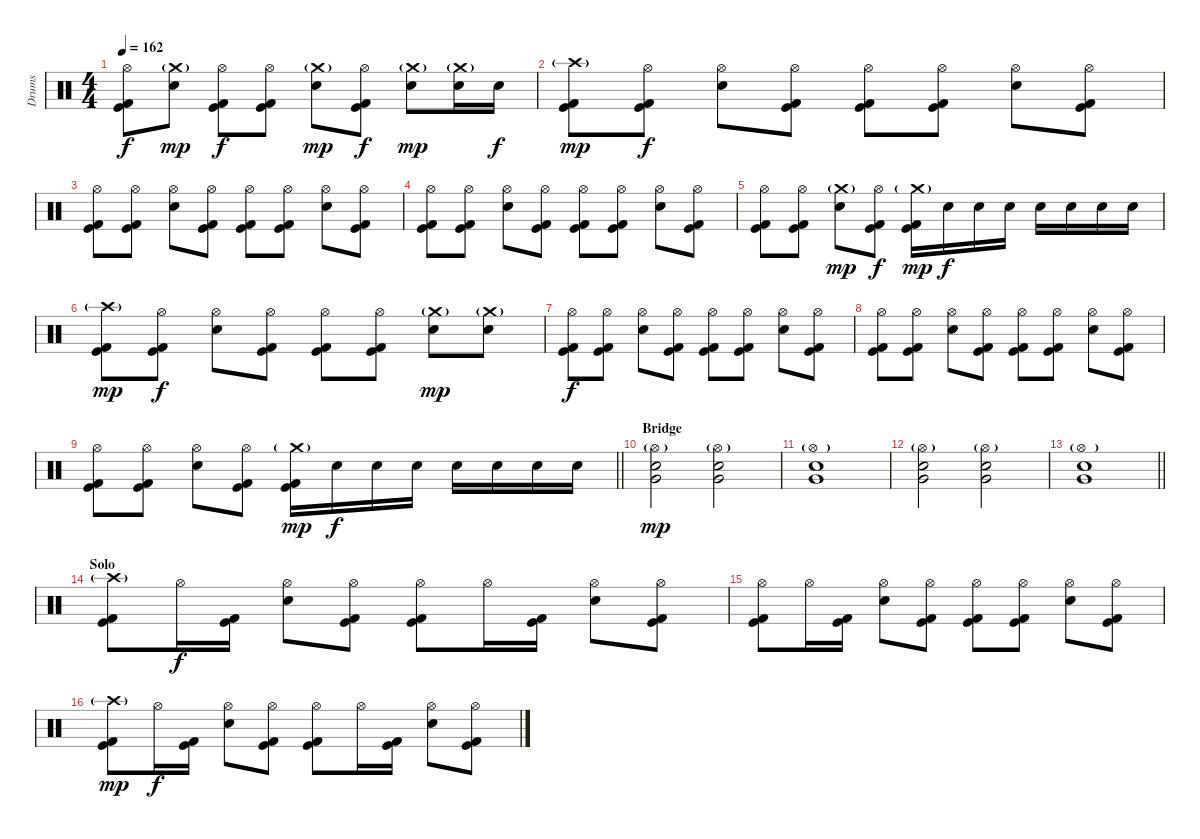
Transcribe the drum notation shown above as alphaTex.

\track ("Drums" "Drums") {instrument percussion}
\staff {score}
\articulation defaults
\ts (4 4)
\tempo 162
\clef neutral
\ks c
("Hi-Hat (open)" "Kick (hit)" "Kick (hit) 2").8{dy f} ("Crash medium (hit)"{g} "Electric Snare (hit)").8{dy mp} ("Hi-Hat (open)" "Kick (hit)" "Kick (hit) 2").8{dy f} ("Hi-Hat (open)" "Kick (hit)" "Kick (hit) 2").8 ("Crash medium (hit)"{g} "Electric Snare (hit)").8{dy mp} ("Hi-Hat (open)" "Kick (hit)" "Kick (hit) 2").8{dy f} ("Crash medium (hit)"{g} "Electric Snare (hit)").8{dy mp} ("Crash medium (hit)"{g} "Electric Snare (hit)").16 "Electric Snare (hit)".16{dy f} |
("Crash high (hit)"{g} "Kick (hit)" "Kick (hit) 2").8{dy mp} ("Hi-Hat (open)" "Kick (hit)" "Kick (hit) 2").8{dy f} ("Hi-Hat (open)" "Electric Snare (hit)").8 ("Hi-Hat (open)" "Kick (hit)" "Kick (hit) 2").8 ("Hi-Hat (open)" "Kick (hit)" "Kick (hit) 2").8 ("Hi-Hat (open)" "Kick (hit)" "Kick (hit) 2").8 ("Hi-Hat (open)" "Electric Snare (hit)").8 ("Hi-Hat (open)" "Kick (hit)" "Kick (hit) 2").8 |
("Hi-Hat (open)" "Kick (hit)" "Kick (hit) 2").8 ("Hi-Hat (open)" "Kick (hit)" "Kick (hit) 2").8 ("Hi-Hat (open)" "Electric Snare (hit)").8 ("Hi-Hat (open)" "Kick (hit)" "Kick (hit) 2").8 ("Hi-Hat (open)" "Kick (hit)" "Kick (hit) 2").8 ("Hi-Hat (open)" "Kick (hit)" "Kick (hit) 2").8 ("Hi-Hat (open)" "Electric Snare (hit)").8 ("Hi-Hat (open)" "Kick (hit)" "Kick (hit) 2").8 |
("Hi-Hat (open)" "Kick (hit)" "Kick (hit) 2").8 ("Hi-Hat (open)" "Kick (hit)" "Kick (hit) 2").8 ("Hi-Hat (open)" "Electric Snare (hit)").8 ("Hi-Hat (open)" "Kick (hit)" "Kick (hit) 2").8 ("Hi-Hat (open)" "Kick (hit)" "Kick (hit) 2").8 ("Hi-Hat (open)" "Kick (hit)" "Kick (hit) 2").8 ("Hi-Hat (open)" "Electric Snare (hit)").8 ("Hi-Hat (open)" "Kick (hit)" "Kick (hit) 2").8 |
("Hi-Hat (open)" "Kick (hit)" "Kick (hit) 2").8 ("Hi-Hat (open)" "Kick (hit)" "Kick (hit) 2").8 ("Crash medium (hit)"{g} "Electric Snare (hit)").8{dy mp} ("Hi-Hat (open)" "Kick (hit)" "Kick (hit) 2").8{dy f} ("Crash medium (hit)"{g} "Kick (hit)" "Kick (hit) 2").16{dy mp} "Electric Snare (hit)".16{dy f} "Electric Snare (hit)".16 "Electric Snare (hit)".16 "Electric Snare (hit)".16 "Electric Snare (hit)".16 "Electric Snare (hit)".16 "Electric Snare (hit)".16 |
("Crash high (hit)"{g} "Kick (hit)" "Kick (hit) 2").8{dy mp} ("Hi-Hat (open)" "Kick (hit)" "Kick (hit) 2").8{dy f} ("Hi-Hat (open)" "Electric Snare (hit)").8 ("Hi-Hat (open)" "Kick (hit)" "Kick (hit) 2").8 ("Hi-Hat (open)" "Kick (hit)" "Kick (hit) 2").8 ("Hi-Hat (open)" "Kick (hit)" "Kick (hit) 2").8 ("Crash medium (hit)"{g} "Electric Snare (hit)").8{dy mp} ("Crash medium (hit)"{g} "Electric Snare (hit)").8 |
("Hi-Hat (open)" "Kick (hit)" "Kick (hit) 2").8{dy f} ("Hi-Hat (open)" "Kick (hit)" "Kick (hit) 2").8 ("Hi-Hat (open)" "Electric Snare (hit)").8 ("Hi-Hat (open)" "Kick (hit)" "Kick (hit) 2").8 ("Hi-Hat (open)" "Kick (hit)" "Kick (hit) 2").8 ("Hi-Hat (open)" "Kick (hit)" "Kick (hit) 2").8 ("Hi-Hat (open)" "Electric Snare (hit)").8 ("Hi-Hat (open)" "Kick (hit)" "Kick (hit) 2").8 |
("Hi-Hat (open)" "Kick (hit)" "Kick (hit) 2").8 ("Hi-Hat (open)" "Kick (hit)" "Kick (hit) 2").8 ("Hi-Hat (open)" "Electric Snare (hit)").8 ("Hi-Hat (open)" "Kick (hit)" "Kick (hit) 2").8 ("Hi-Hat (open)" "Kick (hit)" "Kick (hit) 2").8 ("Hi-Hat (open)" "Kick (hit)" "Kick (hit) 2").8 ("Hi-Hat (open)" "Electric Snare (hit)").8 ("Hi-Hat (open)" "Kick (hit)" "Kick (hit) 2").8 |
\barLineRight lightlight
("Hi-Hat (open)" "Kick (hit)" "Kick (hit) 2").8 ("Hi-Hat (open)" "Kick (hit)" "Kick (hit) 2").8 ("Hi-Hat (open)" "Electric Snare (hit)").8 ("Hi-Hat (open)" "Kick (hit)" "Kick (hit) 2").8 ("Crash medium (hit)"{g} "Kick (hit)" "Kick (hit) 2").16{dy mp} "Electric Snare (hit)".16{dy f} "Electric Snare (hit)".16 "Electric Snare (hit)".16 "Electric Snare (hit)".16 "Electric Snare (hit)".16 "Electric Snare (hit)".16 "Electric Snare (hit)".16 |
\section ("" "Bridge")
("Hi-Hat (open)"{g} "Electric Snare (hit)" "Very Low Tom (hit)").2{dy mp} ("Hi-Hat (open)"{g} "Electric Snare (hit)" "Very Low Tom (hit)").2 |
("Hi-Hat (open)"{g} "Electric Snare (hit)" "Very Low Tom (hit)").1 |
("Hi-Hat (open)"{g} "Electric Snare (hit)" "Very Low Tom (hit)").2 ("Hi-Hat (open)"{g} "Electric Snare (hit)" "Very Low Tom (hit)").2 |
\barLineRight lightlight
("Hi-Hat (open)"{g} "Electric Snare (hit)" "Very Low Tom (hit)").1 |
\section ("" "Solo")
("Crash high (hit)"{g} "Kick (hit)" "Kick (hit) 2").8 "Hi-Hat (open)".16{dy f} ("Kick (hit)" "Kick (hit) 2").16 ("Hi-Hat (open)" "Electric Snare (hit)").8 ("Hi-Hat (open)" "Kick (hit)" "Kick (hit) 2").8 ("Hi-Hat (open)" "Kick (hit)" "Kick (hit) 2").8 "Hi-Hat (open)".16 ("Kick (hit)" "Kick (hit) 2").16 ("Hi-Hat (open)" "Electric Snare (hit)").8 ("Hi-Hat (open)" "Kick (hit)" "Kick (hit) 2").8 |
("Hi-Hat (open)" "Kick (hit)" "Kick (hit) 2").8 "Hi-Hat (open)".16 ("Kick (hit)" "Kick (hit) 2").16 ("Hi-Hat (open)" "Electric Snare (hit)").8 ("Hi-Hat (open)" "Kick (hit)" "Kick (hit) 2").8 ("Hi-Hat (open)" "Kick (hit)" "Kick (hit) 2").8 ("Hi-Hat (open)" "Kick (hit)" "Kick (hit) 2").8 ("Hi-Hat (open)" "Electric Snare (hit)").8 ("Hi-Hat (open)" "Kick (hit)" "Kick (hit) 2").8 |
("Crash high (hit)"{g} "Kick (hit)" "Kick (hit) 2").8{dy mp} "Hi-Hat (open)".16{dy f} ("Kick (hit)" "Kick (hit) 2").16 ("Hi-Hat (open)" "Electric Snare (hit)").8 ("Hi-Hat (open)" "Kick (hit)" "Kick (hit) 2").8 ("Hi-Hat (open)" "Kick (hit)" "Kick (hit) 2").8 "Hi-Hat (open)".16 ("Kick (hit)" "Kick (hit) 2").16 ("Hi-Hat (open)" "Electric Snare (hit)").8 ("Hi-Hat (open)" "Kick (hit)" "Kick (hit) 2").8
